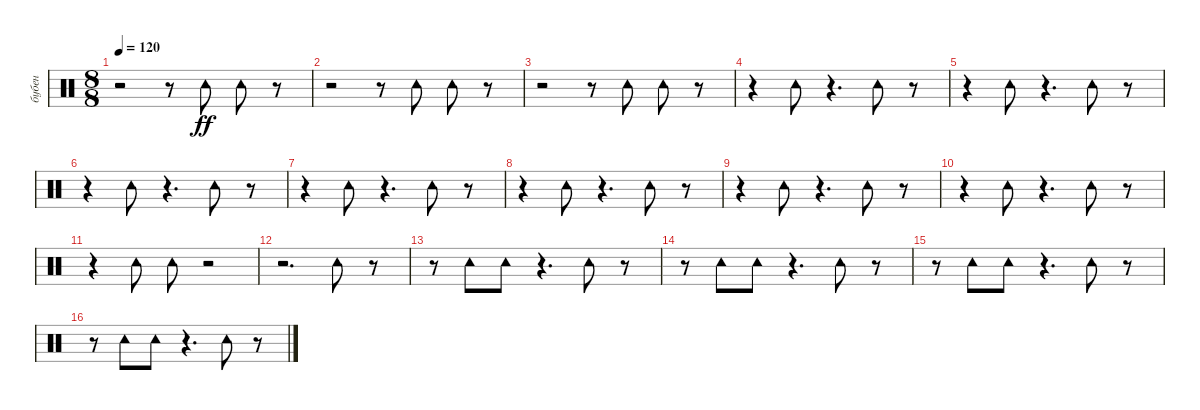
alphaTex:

\track ("бубен" "бубен") {instrument percussion}
\staff {score}
\articulation defaults
\ts (8 8)
\tempo 120
\clef neutral
\ks c
r.2{dy ff} r.8 "Tambourine (hit)".8 "Tambourine (hit)".8 r.8 |
r.2 r.8 "Tambourine (hit)".8 "Tambourine (hit)".8 r.8 |
r.2 r.8 "Tambourine (hit)".8 "Tambourine (hit)".8 r.8 |
r.4 "Tambourine (hit)".8 r.4{d} "Tambourine (hit)".8 r.8 |
r.4 "Tambourine (hit)".8 r.4{d} "Tambourine (hit)".8 r.8 |
r.4 "Tambourine (hit)".8 r.4{d} "Tambourine (hit)".8 r.8 |
r.4 "Tambourine (hit)".8 r.4{d} "Tambourine (hit)".8 r.8 |
r.4 "Tambourine (hit)".8 r.4{d} "Tambourine (hit)".8 r.8 |
r.4 "Tambourine (hit)".8 r.4{d} "Tambourine (hit)".8 r.8 |
r.4 "Tambourine (hit)".8 r.4{d} "Tambourine (hit)".8 r.8 |
r.4 "Tambourine (hit)".8 "Tambourine (hit)".8 r.2 |
r.2{d} "Tambourine (hit)".8 r.8 |
r.8 "Tambourine (hit)".8 "Tambourine (hit)".8 r.4{d} "Tambourine (hit)".8 r.8 |
r.8 "Tambourine (hit)".8 "Tambourine (hit)".8 r.4{d} "Tambourine (hit)".8 r.8 |
r.8 "Tambourine (hit)".8 "Tambourine (hit)".8 r.4{d} "Tambourine (hit)".8 r.8 |
r.8 "Tambourine (hit)".8 "Tambourine (hit)".8 r.4{d} "Tambourine (hit)".8 r.8
